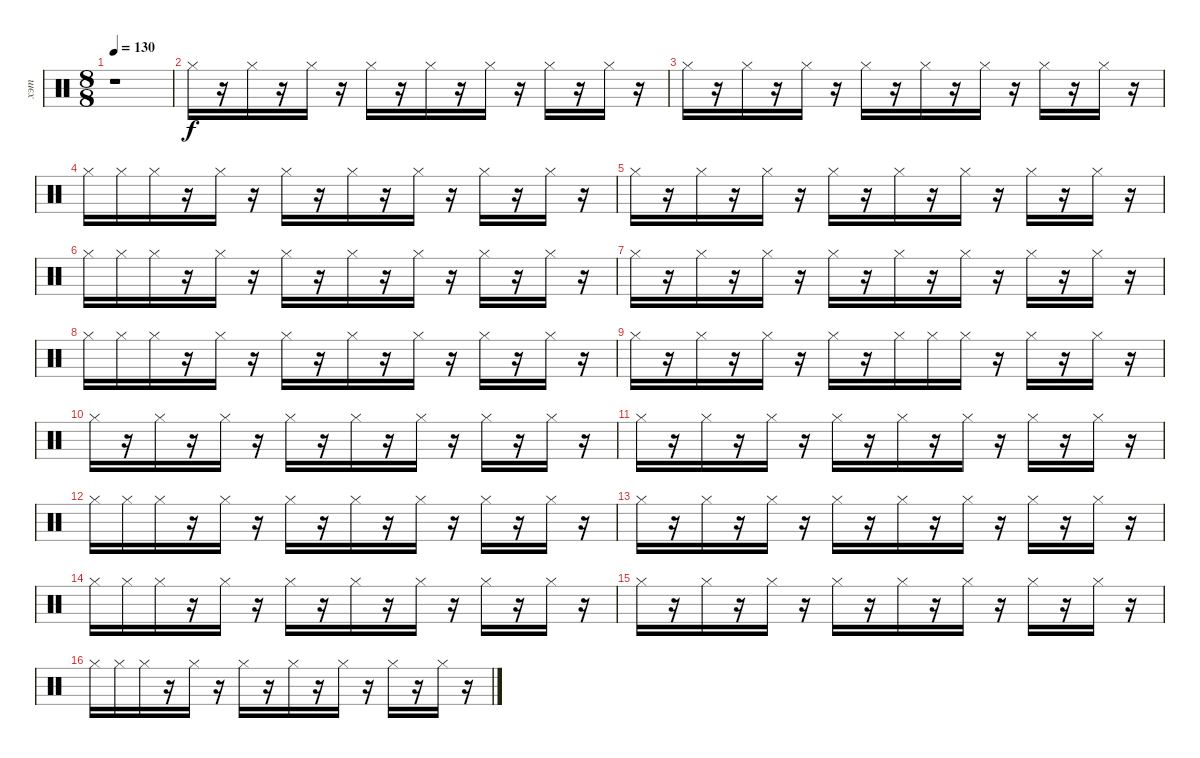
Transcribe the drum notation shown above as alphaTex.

\track ("хэт" "хэт") {instrument percussion}
\staff {score}
\articulation defaults
\ts (8 8)
\tempo 130
\clef neutral
\ks c
r.1{dy f} |
"Hi-Hat (closed)".16 r.16 "Hi-Hat (closed)".16 r.16 "Hi-Hat (closed)".16 r.16 "Hi-Hat (closed)".16 r.16 "Hi-Hat (closed)".16 r.16 "Hi-Hat (closed)".16 r.16 "Hi-Hat (closed)".16 r.16 "Hi-Hat (closed)".16 r.16 |
"Hi-Hat (closed)".16 r.16 "Hi-Hat (closed)".16 r.16 "Hi-Hat (closed)".16 r.16 "Hi-Hat (closed)".16 r.16 "Hi-Hat (closed)".16 r.16 "Hi-Hat (closed)".16 r.16 "Hi-Hat (closed)".16 r.16 "Hi-Hat (closed)".16 r.16 |
"Hi-Hat (closed)".16 "Hi-Hat (closed)".16 "Hi-Hat (closed)".16 r.16 "Hi-Hat (closed)".16 r.16 "Hi-Hat (closed)".16 r.16 "Hi-Hat (closed)".16 r.16 "Hi-Hat (closed)".16 r.16 "Hi-Hat (closed)".16 r.16 "Hi-Hat (closed)".16 r.16 |
"Hi-Hat (closed)".16 r.16 "Hi-Hat (closed)".16 r.16 "Hi-Hat (closed)".16 r.16 "Hi-Hat (closed)".16 r.16 "Hi-Hat (closed)".16 r.16 "Hi-Hat (closed)".16 r.16 "Hi-Hat (closed)".16 r.16 "Hi-Hat (closed)".16 r.16 |
"Hi-Hat (closed)".16 "Hi-Hat (closed)".16 "Hi-Hat (closed)".16 r.16 "Hi-Hat (closed)".16 r.16 "Hi-Hat (closed)".16 r.16 "Hi-Hat (closed)".16 r.16 "Hi-Hat (closed)".16 r.16 "Hi-Hat (closed)".16 r.16 "Hi-Hat (closed)".16 r.16 |
"Hi-Hat (closed)".16 r.16 "Hi-Hat (closed)".16 r.16 "Hi-Hat (closed)".16 r.16 "Hi-Hat (closed)".16 r.16 "Hi-Hat (closed)".16 r.16 "Hi-Hat (closed)".16 r.16 "Hi-Hat (closed)".16 r.16 "Hi-Hat (closed)".16 r.16 |
"Hi-Hat (closed)".16 "Hi-Hat (closed)".16 "Hi-Hat (closed)".16 r.16 "Hi-Hat (closed)".16 r.16 "Hi-Hat (closed)".16 r.16 "Hi-Hat (closed)".16 r.16 "Hi-Hat (closed)".16 r.16 "Hi-Hat (closed)".16 r.16 "Hi-Hat (closed)".16 r.16 |
"Hi-Hat (closed)".16 r.16 "Hi-Hat (closed)".16 r.16 "Hi-Hat (closed)".16 r.16 "Hi-Hat (closed)".16 r.16 "Hi-Hat (closed)".16 "Hi-Hat (closed)".16 "Hi-Hat (closed)".16 r.16 "Hi-Hat (closed)".16 r.16 "Hi-Hat (closed)".16 r.16 |
"Hi-Hat (closed)".16 r.16 "Hi-Hat (closed)".16 r.16 "Hi-Hat (closed)".16 r.16 "Hi-Hat (closed)".16 r.16 "Hi-Hat (closed)".16 r.16 "Hi-Hat (closed)".16 r.16 "Hi-Hat (closed)".16 r.16 "Hi-Hat (closed)".16 r.16 |
"Hi-Hat (closed)".16 r.16 "Hi-Hat (closed)".16 r.16 "Hi-Hat (closed)".16 r.16 "Hi-Hat (closed)".16 r.16 "Hi-Hat (closed)".16 r.16 "Hi-Hat (closed)".16 r.16 "Hi-Hat (closed)".16 r.16 "Hi-Hat (closed)".16 r.16 |
"Hi-Hat (closed)".16 "Hi-Hat (closed)".16 "Hi-Hat (closed)".16 r.16 "Hi-Hat (closed)".16 r.16 "Hi-Hat (closed)".16 r.16 "Hi-Hat (closed)".16 r.16 "Hi-Hat (closed)".16 r.16 "Hi-Hat (closed)".16 r.16 "Hi-Hat (closed)".16 r.16 |
"Hi-Hat (closed)".16 r.16 "Hi-Hat (closed)".16 r.16 "Hi-Hat (closed)".16 r.16 "Hi-Hat (closed)".16 r.16 "Hi-Hat (closed)".16 r.16 "Hi-Hat (closed)".16 r.16 "Hi-Hat (closed)".16 r.16 "Hi-Hat (closed)".16 r.16 |
"Hi-Hat (closed)".16 "Hi-Hat (closed)".16 "Hi-Hat (closed)".16 r.16 "Hi-Hat (closed)".16 r.16 "Hi-Hat (closed)".16 r.16 "Hi-Hat (closed)".16 r.16 "Hi-Hat (closed)".16 r.16 "Hi-Hat (closed)".16 r.16 "Hi-Hat (closed)".16 r.16 |
"Hi-Hat (closed)".16 r.16 "Hi-Hat (closed)".16 r.16 "Hi-Hat (closed)".16 r.16 "Hi-Hat (closed)".16 r.16 "Hi-Hat (closed)".16 r.16 "Hi-Hat (closed)".16 r.16 "Hi-Hat (closed)".16 r.16 "Hi-Hat (closed)".16 r.16 |
"Hi-Hat (closed)".16 "Hi-Hat (closed)".16 "Hi-Hat (closed)".16 r.16 "Hi-Hat (closed)".16 r.16 "Hi-Hat (closed)".16 r.16 "Hi-Hat (closed)".16 r.16 "Hi-Hat (closed)".16 r.16 "Hi-Hat (closed)".16 r.16 "Hi-Hat (closed)".16 r.16
